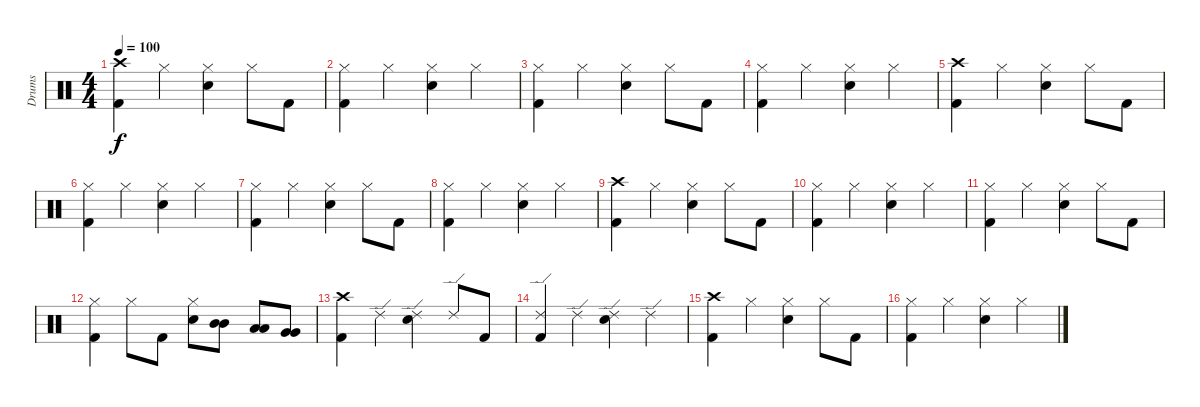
\track ("Drums" "Drums") {instrument percussion}
\staff {score}
\articulation defaults
\ts (4 4)
\tempo 100
\clef neutral
\ks c
("Kick (hit) 2" "Crash high (hit)").4{dy f volume 11} "Hi-Hat (closed)".4 ("Electric Snare (hit)" "Hi-Hat (closed)").4 "Hi-Hat (closed)".8 "Kick (hit) 2".8 |
("Kick (hit) 2" "Hi-Hat (closed)").4 "Hi-Hat (closed)".4 ("Electric Snare (hit)" "Hi-Hat (closed)").4 "Hi-Hat (closed)".4 |
("Kick (hit) 2" "Hi-Hat (closed)").4 "Hi-Hat (closed)".4 ("Electric Snare (hit)" "Hi-Hat (closed)").4 "Hi-Hat (closed)".8 "Kick (hit) 2".8 |
("Kick (hit) 2" "Hi-Hat (closed)").4 "Hi-Hat (closed)".4 ("Electric Snare (hit)" "Hi-Hat (closed)").4 "Hi-Hat (closed)".4 |
("Kick (hit) 2" "Crash high (hit)").4 "Hi-Hat (closed)".4 ("Electric Snare (hit)" "Hi-Hat (closed)").4 "Hi-Hat (closed)".8 "Kick (hit) 2".8 |
("Kick (hit) 2" "Hi-Hat (closed)").4 "Hi-Hat (closed)".4 ("Electric Snare (hit)" "Hi-Hat (closed)").4 "Hi-Hat (closed)".4 |
("Kick (hit) 2" "Hi-Hat (closed)").4 "Hi-Hat (closed)".4 ("Electric Snare (hit)" "Hi-Hat (closed)").4 "Hi-Hat (closed)".8 "Kick (hit) 2".8 |
("Kick (hit) 2" "Hi-Hat (closed)").4 "Hi-Hat (closed)".4 ("Electric Snare (hit)" "Hi-Hat (closed)").4 "Hi-Hat (closed)".4 |
("Kick (hit) 2" "Crash high (hit)").4 "Hi-Hat (closed)".4 ("Electric Snare (hit)" "Hi-Hat (closed)").4 "Hi-Hat (closed)".8 "Kick (hit) 2".8 |
("Kick (hit) 2" "Hi-Hat (closed)").4 "Hi-Hat (closed)".4 ("Electric Snare (hit)" "Hi-Hat (closed)").4 "Hi-Hat (closed)".4 |
("Kick (hit) 2" "Hi-Hat (closed)").4 "Hi-Hat (closed)".4 ("Electric Snare (hit)" "Hi-Hat (closed)").4 "Hi-Hat (closed)".8 "Kick (hit) 2".8 |
("Kick (hit) 2" "Hi-Hat (closed)").4 "Hi-Hat (closed)".8 "Kick (hit) 2".8 ("Electric Snare (hit)" "Hi-Hat (closed)").8 ("Mid Tom (hit)" "Mid Tom (hit)").8 ("Low Tom (hit)" "Low Tom (hit)").8 ("Very Low Tom (hit)" "Very Low Tom (hit)").8 |
("Kick (hit) 2" "Crash high (hit)").4 "Ride (edge) 2".4 ("Electric Snare (hit)" "Ride (edge) 2").4 "Ride (edge) 2".8 "Kick (hit) 2".8 |
("Kick (hit) 2" "Ride (edge) 2").4 "Ride (edge) 2".4 ("Electric Snare (hit)" "Ride (edge) 2").4 "Ride (edge) 2".4 |
("Kick (hit) 2" "Crash high (hit)").4 "Hi-Hat (closed)".4 ("Electric Snare (hit)" "Hi-Hat (closed)").4 "Hi-Hat (closed)".8 "Kick (hit) 2".8 |
("Kick (hit) 2" "Hi-Hat (closed)").4 "Hi-Hat (closed)".4 ("Electric Snare (hit)" "Hi-Hat (closed)").4 "Hi-Hat (closed)".4
